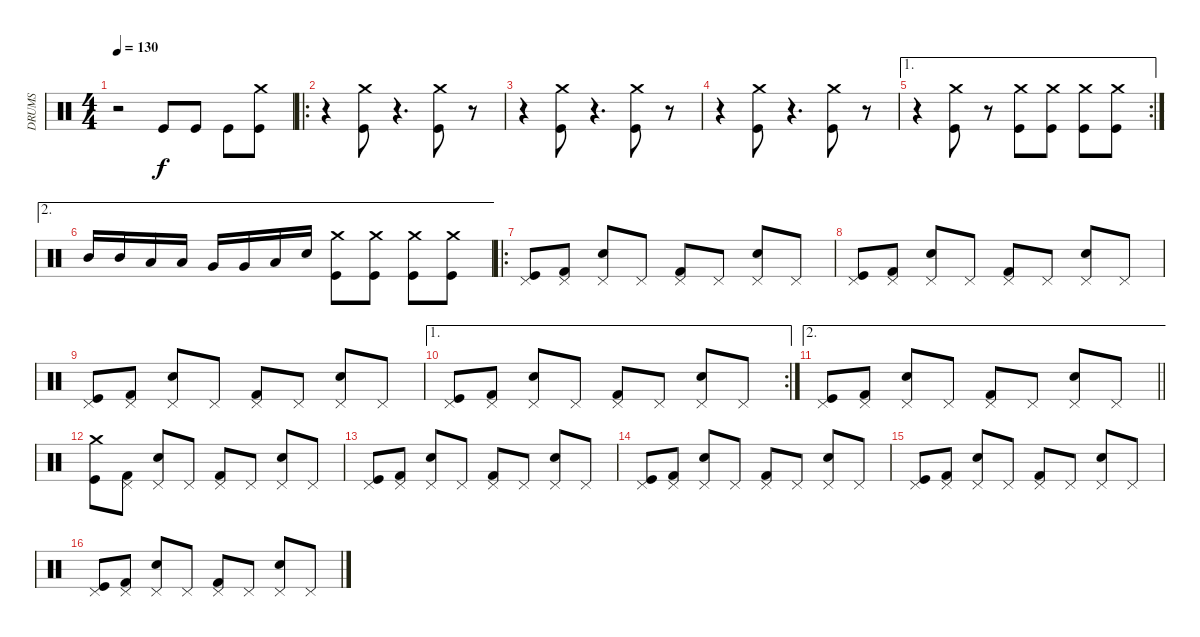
\track ("DRUMS" "DRUMS") {instrument percussion}
\staff {score}
\articulation defaults
\ts (4 4)
\tempo 130
\clef neutral
\ks c
r.2{dy f} "Kick (hit)".8 "Kick (hit)".8 "Kick (hit)".8 ("Kick (hit)" "Crash medium (hit)").8 |
\ro
r.4 ("Crash medium (hit)" "Kick (hit)").8 r.4{d} ("Crash medium (hit)" "Kick (hit)").8 r.8 |
r.4 ("Crash medium (hit)" "Kick (hit)").8 r.4{d} ("Crash medium (hit)" "Kick (hit)").8 r.8 |
r.4 ("Crash medium (hit)" "Kick (hit)").8 r.4{d} ("Crash medium (hit)" "Kick (hit)").8 r.8 |
\ae 1
\rc 2
r.4 ("Crash medium (hit)" "Kick (hit)").8 r.8 ("Crash medium (hit)" "Kick (hit)").8 ("Crash medium (hit)" "Kick (hit)").8 ("Crash medium (hit)" "Kick (hit)").8 ("Crash medium (hit)" "Kick (hit)").8 |
\ae 2 "Mid Tom (hit)".16 "Mid Tom (hit)".16 "Low Tom (hit)".16 "Low Tom (hit)".16 "Very Low Tom (hit)".16 "Very Low Tom (hit)".16 "Low Floor Tom (hit)".16 "Snare (hit) 2".16
("Crash medium (hit)" "Kick (hit)").8 ("Crash medium (hit)" "Kick (hit)").8 ("Crash medium (hit)" "Kick (hit)").8 ("Crash medium (hit)" "Kick (hit)").8 |
\ro
("Pedal Hi-Hat (hit)" "Kick (hit)").8 ("Pedal Hi-Hat (hit)" "Kick (hit) 2").8 ("Pedal Hi-Hat (hit)" "Snare (hit) 2").8 "Pedal Hi-Hat (hit)".8 ("Pedal Hi-Hat (hit)" "Kick (hit) 2").8 "Pedal Hi-Hat (hit)".8 ("Pedal Hi-Hat (hit)" "Snare (hit) 2").8 "Pedal Hi-Hat (hit)".8 |
("Pedal Hi-Hat (hit)" "Kick (hit)").8 ("Pedal Hi-Hat (hit)" "Kick (hit) 2").8 ("Pedal Hi-Hat (hit)" "Snare (hit) 2").8 "Pedal Hi-Hat (hit)".8 ("Pedal Hi-Hat (hit)" "Kick (hit) 2").8 "Pedal Hi-Hat (hit)".8 ("Pedal Hi-Hat (hit)" "Snare (hit) 2").8 "Pedal Hi-Hat (hit)".8 |
("Pedal Hi-Hat (hit)" "Kick (hit)").8 ("Pedal Hi-Hat (hit)" "Kick (hit) 2").8 ("Pedal Hi-Hat (hit)" "Snare (hit) 2").8 "Pedal Hi-Hat (hit)".8 ("Pedal Hi-Hat (hit)" "Kick (hit) 2").8 "Pedal Hi-Hat (hit)".8 ("Pedal Hi-Hat (hit)" "Snare (hit) 2").8 "Pedal Hi-Hat (hit)".8 |
\ae 1
\rc 2
("Pedal Hi-Hat (hit)" "Kick (hit)").8 ("Pedal Hi-Hat (hit)" "Kick (hit) 2").8 ("Pedal Hi-Hat (hit)" "Snare (hit) 2").8 "Pedal Hi-Hat (hit)".8 ("Pedal Hi-Hat (hit)" "Kick (hit) 2").8 "Pedal Hi-Hat (hit)".8 ("Pedal Hi-Hat (hit)" "Snare (hit) 2").8 "Pedal Hi-Hat (hit)".8 |
\ae 2
\barLineRight lightlight
("Pedal Hi-Hat (hit)" "Kick (hit)").8 ("Pedal Hi-Hat (hit)" "Kick (hit) 2").8 ("Pedal Hi-Hat (hit)" "Snare (hit) 2").8 "Pedal Hi-Hat (hit)".8 ("Pedal Hi-Hat (hit)" "Kick (hit) 2").8 "Pedal Hi-Hat (hit)".8 ("Pedal Hi-Hat (hit)" "Snare (hit) 2").8 "Pedal Hi-Hat (hit)".8 |
("Crash medium (hit)" "Kick (hit)").8 ("Pedal Hi-Hat (hit)" "Kick (hit) 2").8 ("Pedal Hi-Hat (hit)" "Snare (hit) 2").8 "Pedal Hi-Hat (hit)".8 ("Pedal Hi-Hat (hit)" "Kick (hit) 2").8 "Pedal Hi-Hat (hit)".8 ("Pedal Hi-Hat (hit)" "Snare (hit) 2").8 "Pedal Hi-Hat (hit)".8 |
("Pedal Hi-Hat (hit)" "Kick (hit)").8 ("Pedal Hi-Hat (hit)" "Kick (hit) 2").8 ("Pedal Hi-Hat (hit)" "Snare (hit) 2").8 "Pedal Hi-Hat (hit)".8 ("Pedal Hi-Hat (hit)" "Kick (hit) 2").8 "Pedal Hi-Hat (hit)".8 ("Pedal Hi-Hat (hit)" "Snare (hit) 2").8 "Pedal Hi-Hat (hit)".8 |
("Pedal Hi-Hat (hit)" "Kick (hit)").8 ("Pedal Hi-Hat (hit)" "Kick (hit) 2").8 ("Pedal Hi-Hat (hit)" "Snare (hit) 2").8 "Pedal Hi-Hat (hit)".8 ("Pedal Hi-Hat (hit)" "Kick (hit) 2").8 "Pedal Hi-Hat (hit)".8 ("Pedal Hi-Hat (hit)" "Snare (hit) 2").8 "Pedal Hi-Hat (hit)".8 |
("Pedal Hi-Hat (hit)" "Kick (hit)").8 ("Pedal Hi-Hat (hit)" "Kick (hit) 2").8 ("Pedal Hi-Hat (hit)" "Snare (hit) 2").8 "Pedal Hi-Hat (hit)".8 ("Pedal Hi-Hat (hit)" "Kick (hit) 2").8 "Pedal Hi-Hat (hit)".8 ("Pedal Hi-Hat (hit)" "Snare (hit) 2").8 "Pedal Hi-Hat (hit)".8 |
("Pedal Hi-Hat (hit)" "Kick (hit)").8 ("Pedal Hi-Hat (hit)" "Kick (hit) 2").8 ("Pedal Hi-Hat (hit)" "Snare (hit) 2").8 "Pedal Hi-Hat (hit)".8 ("Pedal Hi-Hat (hit)" "Kick (hit) 2").8 "Pedal Hi-Hat (hit)".8 ("Pedal Hi-Hat (hit)" "Snare (hit) 2").8 "Pedal Hi-Hat (hit)".8
